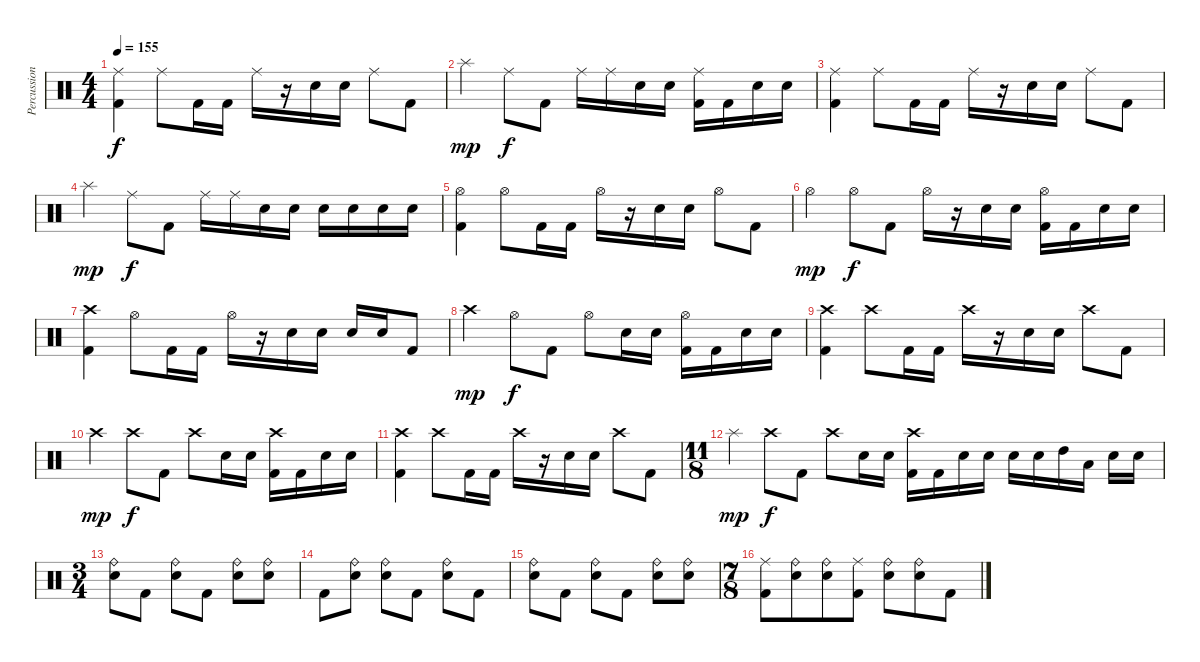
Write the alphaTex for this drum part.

\track ("Percussion" "Percussion") {instrument percussion}
\staff {score}
\articulation defaults
\ts (4 4)
\tempo 155
\clef neutral
\ks c
("Ride (middle)" "Kick (hit) 2").4{dy f} "Ride (middle)".8 "Kick (hit) 2".16 "Kick (hit) 2".16 "Ride (middle)".16 r.16 "Electric Snare (hit)".16 "Electric Snare (hit)".16 "Ride (middle)".8 "Kick (hit) 2".8 |
"Splash (hit)".4{dy mp} "Ride (middle)".8{dy f} "Kick (hit) 2".8 "Ride (middle)".16 "Ride (middle)".16 "Electric Snare (hit)".16 "Electric Snare (hit)".16 ("Ride (middle)" "Kick (hit) 2").16 "Kick (hit) 2".16 "Electric Snare (hit)".16 "Electric Snare (hit)".16 |
("Ride (middle)" "Kick (hit) 2").4 "Ride (middle)".8 "Kick (hit) 2".16 "Kick (hit) 2".16 "Ride (middle)".16 r.16 "Electric Snare (hit)".16 "Electric Snare (hit)".16 "Ride (middle)".8 "Kick (hit) 2".8 |
"Splash (hit)".4{dy mp} "Ride (middle)".8{dy f} "Kick (hit) 2".8 "Ride (middle)".16 "Ride (middle)".16 "Electric Snare (hit)".16 "Electric Snare (hit)".16 "Electric Snare (hit)".16 "Electric Snare (hit)".16 "Electric Snare (hit)".16 "Electric Snare (hit)".16 |
("Hi-Hat (open)" "Kick (hit) 2").4 "Hi-Hat (open)".8 "Kick (hit) 2".16 "Kick (hit) 2".16 "Hi-Hat (open)".16 r.16 "Electric Snare (hit)".16 "Electric Snare (hit)".16 "Hi-Hat (open)".8 "Kick (hit) 2".8 |
"Hi-Hat (open)".4{dy mp} "Hi-Hat (open)".8{dy f} "Kick (hit) 2".8 "Hi-Hat (open)".16 r.16 "Electric Snare (hit)".16 "Electric Snare (hit)".16 ("Hi-Hat (open)" "Kick (hit) 2").16 "Kick (hit) 2".16 "Electric Snare (hit)".16 "Electric Snare (hit)".16 |
("Crash high (hit)" "Kick (hit) 2").4 "Hi-Hat (open)".8 "Kick (hit) 2".16 "Kick (hit) 2".16 "Hi-Hat (open)".16 r.16 "Electric Snare (hit)".16 "Electric Snare (hit)".16 "Electric Snare (hit)".16 "Electric Snare (hit)".16 "Kick (hit) 2".8 |
"Crash high (hit)".4{dy mp} "Hi-Hat (open)".8{dy f} "Kick (hit) 2".8 "Hi-Hat (open)".8 "Electric Snare (hit)".16 "Electric Snare (hit)".16 ("Hi-Hat (open)" "Kick (hit) 2").16 "Kick (hit) 2".16 "Electric Snare (hit)".16 "Electric Snare (hit)".16 |
("Crash high (hit)" "Kick (hit) 2").4 "Crash high (hit)".8 "Kick (hit) 2".16 "Kick (hit) 2".16 "Crash high (hit)".16 r.16 "Electric Snare (hit)".16 "Electric Snare (hit)".16 "Crash high (hit)".8 "Kick (hit) 2".8 |
"Crash high (hit)".4{dy mp} "Crash high (hit)".8{dy f} "Kick (hit) 2".8 "Crash high (hit)".8 "Electric Snare (hit)".16 "Electric Snare (hit)".16 ("Crash high (hit)" "Kick (hit) 2").16 "Kick (hit) 2".16 "Electric Snare (hit)".16 "Electric Snare (hit)".16 |
("Crash high (hit)" "Kick (hit) 2").4 "Crash high (hit)".8 "Kick (hit) 2".16 "Kick (hit) 2".16 "Crash high (hit)".16 r.16 "Electric Snare (hit)".16 "Electric Snare (hit)".16 "Crash high (hit)".8 "Kick (hit) 2".8 |
\ts (11 8)
"Splash (hit)".4{dy mp} "Crash high (hit)".8{dy f} "Kick (hit) 2".8 "Crash high (hit)".8 "Electric Snare (hit)".16 "Electric Snare (hit)".16 ("Crash high (hit)" "Kick (hit) 2").16 "Kick (hit) 2".16 "Electric Snare (hit)".16 "Electric Snare (hit)".16 "Electric Snare (hit)".16 "Electric Snare (hit)".16 "High Tom (hit)".16 "Low Tom (hit)".16 "Electric Snare (hit)".16 "Electric Snare (hit)".16 |
\ts (3 4)
("Ride (bell)" "Electric Snare (hit)").8 "Kick (hit) 2".8 ("Ride (bell)" "Electric Snare (hit)").8 "Kick (hit) 2".8 ("Ride (bell)" "Electric Snare (hit)").8 ("Ride (bell)" "Electric Snare (hit)").8 |
"Kick (hit) 2".8 ("Ride (bell)" "Electric Snare (hit)").8 ("Ride (bell)" "Electric Snare (hit)").8 "Kick (hit) 2".8 ("Ride (bell)" "Electric Snare (hit)").8 "Kick (hit) 2".8 |
("Ride (bell)" "Electric Snare (hit)").8 "Kick (hit) 2".8 ("Ride (bell)" "Electric Snare (hit)").8 "Kick (hit) 2".8 ("Ride (bell)" "Electric Snare (hit)").8 ("Ride (bell)" "Electric Snare (hit)").8 |
\ts (7 8)
("Ride (middle)" "Kick (hit) 2").8 ("Ride (bell)" "Electric Snare (hit)").8 ("Ride (bell)" "Electric Snare (hit)").8 ("Ride (middle)" "Kick (hit) 2").8 ("Ride (bell)" "Electric Snare (hit)").8 ("Ride (bell)" "Electric Snare (hit)").8 "Kick (hit) 2".8
